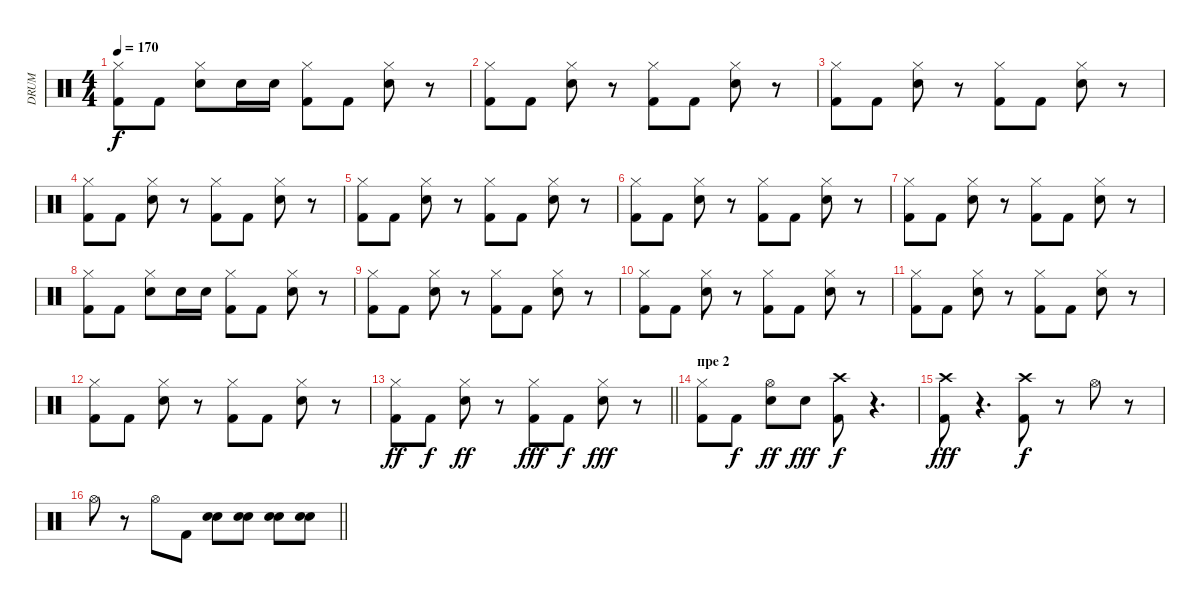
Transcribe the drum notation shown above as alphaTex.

\track ("DRUM" "DRUM") {instrument percussion}
\staff {score}
\articulation defaults
\ts (4 4)
\tempo 170
\clef neutral
\ks c
("Hi-Hat (closed)" "Kick (hit) 2").8{dy f} "Kick (hit) 2".8 ("Hi-Hat (closed)" "Snare (hit) 2").8 "Snare (hit) 2".16 "Snare (hit) 2".16 ("Hi-Hat (closed)" "Kick (hit) 2").8 "Kick (hit) 2".8 ("Hi-Hat (closed)" "Snare (hit) 2").8 r.8 |
("Hi-Hat (closed)" "Kick (hit) 2").8 "Kick (hit) 2".8 ("Hi-Hat (closed)" "Snare (hit) 2").8 r.8 ("Hi-Hat (closed)" "Kick (hit) 2").8 "Kick (hit) 2".8 ("Hi-Hat (closed)" "Snare (hit) 2").8 r.8 |
("Kick (hit) 2" "Hi-Hat (closed)").8 "Kick (hit) 2".8 ("Snare (hit) 2" "Hi-Hat (closed)").8 r.8 ("Hi-Hat (closed)" "Kick (hit) 2").8 "Kick (hit) 2".8 ("Hi-Hat (closed)" "Snare (hit) 2").8 r.8 |
("Hi-Hat (closed)" "Kick (hit) 2").8 "Kick (hit) 2".8 ("Hi-Hat (closed)" "Snare (hit) 2").8 r.8 ("Hi-Hat (closed)" "Kick (hit) 2").8 "Kick (hit) 2".8 ("Hi-Hat (closed)" "Snare (hit) 2").8 r.8 |
("Kick (hit) 2" "Hi-Hat (closed)").8 "Kick (hit) 2".8 ("Snare (hit) 2" "Hi-Hat (closed)").8 r.8 ("Hi-Hat (closed)" "Kick (hit) 2").8 "Kick (hit) 2".8 ("Hi-Hat (closed)" "Snare (hit) 2").8 r.8 |
("Hi-Hat (closed)" "Kick (hit) 2").8 "Kick (hit) 2".8 ("Hi-Hat (closed)" "Snare (hit) 2").8 r.8 ("Hi-Hat (closed)" "Kick (hit) 2").8 "Kick (hit) 2".8 ("Hi-Hat (closed)" "Snare (hit) 2").8 r.8 |
("Kick (hit) 2" "Hi-Hat (closed)").8 "Kick (hit) 2".8 ("Snare (hit) 2" "Hi-Hat (closed)").8 r.8 ("Hi-Hat (closed)" "Kick (hit) 2").8 "Kick (hit) 2".8 ("Hi-Hat (closed)" "Snare (hit) 2").8 r.8 |
("Hi-Hat (closed)" "Kick (hit) 2").8 "Kick (hit) 2".8 ("Hi-Hat (closed)" "Snare (hit) 2").8 "Snare (hit) 2".16 "Snare (hit) 2".16 ("Hi-Hat (closed)" "Kick (hit) 2").8 "Kick (hit) 2".8 ("Hi-Hat (closed)" "Snare (hit) 2").8 r.8 |
("Hi-Hat (closed)" "Kick (hit) 2").8 "Kick (hit) 2".8 ("Hi-Hat (closed)" "Snare (hit) 2").8 r.8 ("Hi-Hat (closed)" "Kick (hit) 2").8 "Kick (hit) 2".8 ("Hi-Hat (closed)" "Snare (hit) 2").8 r.8 |
("Kick (hit) 2" "Hi-Hat (closed)").8 "Kick (hit) 2".8 ("Snare (hit) 2" "Hi-Hat (closed)").8 r.8 ("Hi-Hat (closed)" "Kick (hit) 2").8 "Kick (hit) 2".8 ("Hi-Hat (closed)" "Snare (hit) 2").8 r.8 |
("Hi-Hat (closed)" "Kick (hit) 2").8 "Kick (hit) 2".8 ("Hi-Hat (closed)" "Snare (hit) 2").8 r.8 ("Hi-Hat (closed)" "Kick (hit) 2").8 "Kick (hit) 2".8 ("Hi-Hat (closed)" "Snare (hit) 2").8 r.8 |
("Kick (hit) 2" "Hi-Hat (closed)").8 "Kick (hit) 2".8 ("Snare (hit) 2" "Hi-Hat (closed)").8 r.8 ("Hi-Hat (closed)" "Kick (hit) 2").8 "Kick (hit) 2".8 ("Hi-Hat (closed)" "Snare (hit) 2").8 r.8 |
\barLineRight lightlight
("Hi-Hat (closed)" "Kick (hit) 2").8{dy ff} "Kick (hit) 2".8{dy f} ("Hi-Hat (closed)" "Snare (hit) 2").8{dy ff} r.8 ("Hi-Hat (closed)" "Kick (hit) 2").8{dy fff} "Kick (hit) 2".8{dy f} ("Hi-Hat (closed)" "Snare (hit) 2").8{dy fff} r.8 |
\section ("" "пре 2")
("Kick (hit) 2" "Hi-Hat (closed)").8 "Kick (hit) 2".8{dy f} ("Hi-Hat (open)" "Snare (hit) 2").8{dy ff} "Snare (hit) 2".8{dy fff} ("Crash high (hit)" "Kick (hit) 2").8{dy f} r.4{d} |
("Kick (hit) 2" "Crash high (hit)").8{dy fff} r.4{d} ("Kick (hit) 2" "Crash high (hit)").8{dy f} r.8 "Hi-Hat (open)".8 r.8 |
\barLineRight lightlight "Hi-Hat (open)".8
r.8 "Hi-Hat (open)".8 "Kick (hit) 2".8 ("Snare (hit) 2" "Electric Snare (hit)").8 ("Snare (hit) 2" "Electric Snare (hit)").8 ("Snare (hit) 2" "Electric Snare (hit)").8 ("Snare (hit) 2" "Electric Snare (hit)").8
